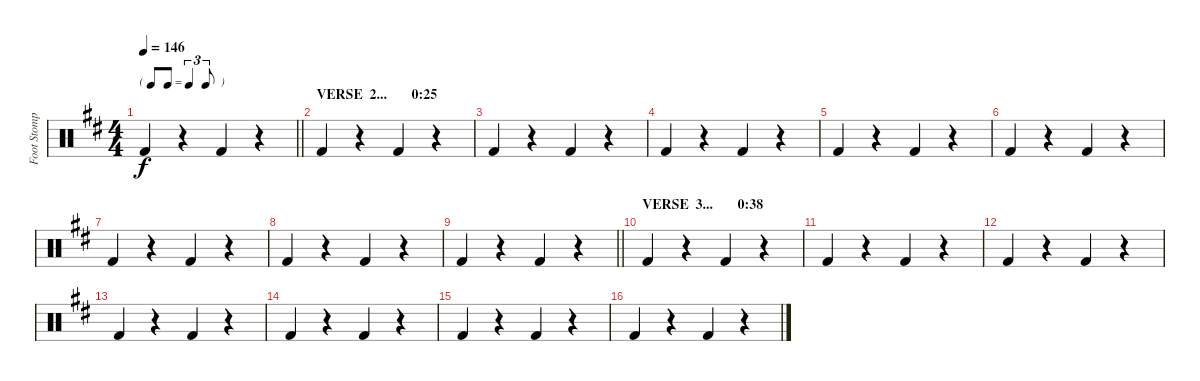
\track ("Foot Stomp" "Foot Stomp") {instrument percussion}
\staff {score}
\articulation defaults
\ts (4 4)
\tf triplet8th
\tempo 146
\clef neutral
\barLineRight lightlight
\ks d "Kick (hit) 2".4{dy f}
r.4 "Kick (hit) 2".4 r.4 |
\section ("" "VERSE  2...       0:25")
"Kick (hit) 2".4 r.4 "Kick (hit) 2".4 r.4 |
"Kick (hit) 2".4 r.4 "Kick (hit) 2".4 r.4 |
"Kick (hit) 2".4 r.4 "Kick (hit) 2".4 r.4 |
"Kick (hit) 2".4 r.4 "Kick (hit) 2".4 r.4 |
"Kick (hit) 2".4 r.4 "Kick (hit) 2".4 r.4 |
"Kick (hit) 2".4 r.4 "Kick (hit) 2".4 r.4 |
"Kick (hit) 2".4 r.4 "Kick (hit) 2".4 r.4 |
\barLineRight lightlight "Kick (hit) 2".4
r.4 "Kick (hit) 2".4 r.4 |
\section ("" "VERSE  3...       0:38")
"Kick (hit) 2".4 r.4 "Kick (hit) 2".4 r.4 |
"Kick (hit) 2".4 r.4 "Kick (hit) 2".4 r.4 |
"Kick (hit) 2".4 r.4 "Kick (hit) 2".4 r.4 |
"Kick (hit) 2".4 r.4 "Kick (hit) 2".4 r.4 |
"Kick (hit) 2".4 r.4 "Kick (hit) 2".4 r.4 |
"Kick (hit) 2".4 r.4 "Kick (hit) 2".4 r.4 |
"Kick (hit) 2".4 r.4 "Kick (hit) 2".4 r.4
